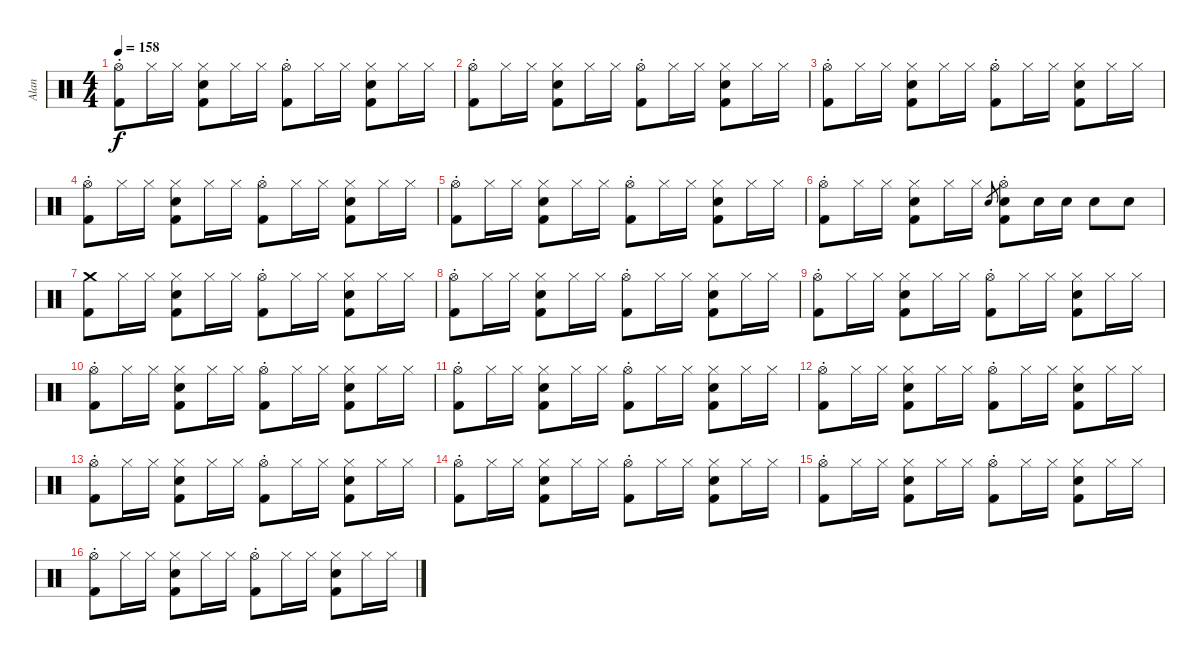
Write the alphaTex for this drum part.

\track ("Alan" "Alan") {instrument percussion}
\staff {score}
\articulation defaults
\ts (4 4)
\tempo 158
\clef neutral
\ks c
("Hi-Hat (open)"{st} "Kick (hit) 2").8{dy f} "Hi-Hat (closed)".16 "Hi-Hat (closed)".16 ("Hi-Hat (closed)" "Kick (hit) 2" "Snare (hit) 2").8 "Hi-Hat (closed)".16 "Hi-Hat (closed)".16 ("Hi-Hat (open)"{st} "Kick (hit) 2").8 "Hi-Hat (closed)".16 "Hi-Hat (closed)".16 ("Hi-Hat (closed)" "Kick (hit) 2" "Snare (hit) 2").8 "Hi-Hat (closed)".16 "Hi-Hat (closed)".16 |
("Hi-Hat (open)"{st} "Kick (hit) 2").8 "Hi-Hat (closed)".16 "Hi-Hat (closed)".16 ("Hi-Hat (closed)" "Kick (hit) 2" "Snare (hit) 2").8 "Hi-Hat (closed)".16 "Hi-Hat (closed)".16 ("Hi-Hat (open)"{st} "Kick (hit) 2").8 "Hi-Hat (closed)".16 "Hi-Hat (closed)".16 ("Hi-Hat (closed)" "Kick (hit) 2" "Snare (hit) 2").8 "Hi-Hat (closed)".16 "Hi-Hat (closed)".16 |
("Hi-Hat (open)"{st} "Kick (hit) 2").8 "Hi-Hat (closed)".16 "Hi-Hat (closed)".16 ("Hi-Hat (closed)" "Kick (hit) 2" "Snare (hit) 2").8 "Hi-Hat (closed)".16 "Hi-Hat (closed)".16 ("Hi-Hat (open)"{st} "Kick (hit) 2").8 "Hi-Hat (closed)".16 "Hi-Hat (closed)".16 ("Hi-Hat (closed)" "Kick (hit) 2" "Snare (hit) 2").8 "Hi-Hat (closed)".16 "Hi-Hat (closed)".16 |
("Hi-Hat (open)"{st} "Kick (hit) 2").8 "Hi-Hat (closed)".16 "Hi-Hat (closed)".16 ("Hi-Hat (closed)" "Kick (hit) 2" "Snare (hit) 2").8 "Hi-Hat (closed)".16 "Hi-Hat (closed)".16 ("Hi-Hat (open)"{st} "Kick (hit) 2").8 "Hi-Hat (closed)".16 "Hi-Hat (closed)".16 ("Hi-Hat (closed)" "Kick (hit) 2" "Snare (hit) 2").8 "Hi-Hat (closed)".16 "Hi-Hat (closed)".16 |
("Hi-Hat (open)"{st} "Kick (hit) 2").8 "Hi-Hat (closed)".16 "Hi-Hat (closed)".16 ("Hi-Hat (closed)" "Kick (hit) 2" "Snare (hit) 2").8 "Hi-Hat (closed)".16 "Hi-Hat (closed)".16 ("Hi-Hat (open)"{st} "Kick (hit) 2").8 "Hi-Hat (closed)".16 "Hi-Hat (closed)".16 ("Hi-Hat (closed)" "Kick (hit) 2" "Snare (hit) 2").8 "Hi-Hat (closed)".16 "Hi-Hat (closed)".16 |
("Hi-Hat (open)"{st} "Kick (hit) 2").8 "Hi-Hat (closed)".16 "Hi-Hat (closed)".16 ("Kick (hit) 2" "Snare (hit) 2" "Hi-Hat (closed)").8 "Hi-Hat (closed)".16 "Hi-Hat (closed)".16 "Snare (hit) 2".8{gr} ("Snare (hit) 2" "Kick (hit) 2" "Hi-Hat (open)"{st}).8 "Snare (hit) 2".16 "Snare (hit) 2".16 "Snare (hit) 2".8 "Snare (hit) 2".8 |
("Crash medium (hit)" "Kick (hit) 2").8 "Hi-Hat (closed)".16 "Hi-Hat (closed)".16 ("Hi-Hat (closed)" "Kick (hit) 2" "Snare (hit) 2").8 "Hi-Hat (closed)".16 "Hi-Hat (closed)".16 ("Hi-Hat (open)"{st} "Kick (hit) 2").8 "Hi-Hat (closed)".16 "Hi-Hat (closed)".16 ("Hi-Hat (closed)" "Kick (hit) 2" "Snare (hit) 2").8 "Hi-Hat (closed)".16 "Hi-Hat (closed)".16 |
("Hi-Hat (open)"{st} "Kick (hit) 2").8 "Hi-Hat (closed)".16 "Hi-Hat (closed)".16 ("Hi-Hat (closed)" "Kick (hit) 2" "Snare (hit) 2").8 "Hi-Hat (closed)".16 "Hi-Hat (closed)".16 ("Hi-Hat (open)"{st} "Kick (hit) 2").8 "Hi-Hat (closed)".16 "Hi-Hat (closed)".16 ("Hi-Hat (closed)" "Kick (hit) 2" "Snare (hit) 2").8 "Hi-Hat (closed)".16 "Hi-Hat (closed)".16 |
("Hi-Hat (open)"{st} "Kick (hit) 2").8 "Hi-Hat (closed)".16 "Hi-Hat (closed)".16 ("Hi-Hat (closed)" "Kick (hit) 2" "Snare (hit) 2").8 "Hi-Hat (closed)".16 "Hi-Hat (closed)".16 ("Hi-Hat (open)"{st} "Kick (hit) 2").8 "Hi-Hat (closed)".16 "Hi-Hat (closed)".16 ("Hi-Hat (closed)" "Kick (hit) 2" "Snare (hit) 2").8 "Hi-Hat (closed)".16 "Hi-Hat (closed)".16 |
("Hi-Hat (open)"{st} "Kick (hit) 2").8 "Hi-Hat (closed)".16 "Hi-Hat (closed)".16 ("Hi-Hat (closed)" "Kick (hit) 2" "Snare (hit) 2").8 "Hi-Hat (closed)".16 "Hi-Hat (closed)".16 ("Hi-Hat (open)"{st} "Kick (hit) 2").8 "Hi-Hat (closed)".16 "Hi-Hat (closed)".16 ("Hi-Hat (closed)" "Kick (hit) 2" "Snare (hit) 2").8 "Hi-Hat (closed)".16 "Hi-Hat (closed)".16 |
("Hi-Hat (open)"{st} "Kick (hit) 2").8 "Hi-Hat (closed)".16 "Hi-Hat (closed)".16 ("Hi-Hat (closed)" "Kick (hit) 2" "Snare (hit) 2").8 "Hi-Hat (closed)".16 "Hi-Hat (closed)".16 ("Hi-Hat (open)"{st} "Kick (hit) 2").8 "Hi-Hat (closed)".16 "Hi-Hat (closed)".16 ("Hi-Hat (closed)" "Kick (hit) 2" "Snare (hit) 2").8 "Hi-Hat (closed)".16 "Hi-Hat (closed)".16 |
("Hi-Hat (open)"{st} "Kick (hit) 2").8 "Hi-Hat (closed)".16 "Hi-Hat (closed)".16 ("Hi-Hat (closed)" "Kick (hit) 2" "Snare (hit) 2").8 "Hi-Hat (closed)".16 "Hi-Hat (closed)".16 ("Hi-Hat (open)"{st} "Kick (hit) 2").8 "Hi-Hat (closed)".16 "Hi-Hat (closed)".16 ("Hi-Hat (closed)" "Kick (hit) 2" "Snare (hit) 2").8 "Hi-Hat (closed)".16 "Hi-Hat (closed)".16 |
("Hi-Hat (open)"{st} "Kick (hit) 2").8 "Hi-Hat (closed)".16 "Hi-Hat (closed)".16 ("Hi-Hat (closed)" "Kick (hit) 2" "Snare (hit) 2").8 "Hi-Hat (closed)".16 "Hi-Hat (closed)".16 ("Hi-Hat (open)"{st} "Kick (hit) 2").8 "Hi-Hat (closed)".16 "Hi-Hat (closed)".16 ("Hi-Hat (closed)" "Kick (hit) 2" "Snare (hit) 2").8 "Hi-Hat (closed)".16 "Hi-Hat (closed)".16 |
("Hi-Hat (open)"{st} "Kick (hit) 2").8 "Hi-Hat (closed)".16 "Hi-Hat (closed)".16 ("Hi-Hat (closed)" "Kick (hit) 2" "Snare (hit) 2").8 "Hi-Hat (closed)".16 "Hi-Hat (closed)".16 ("Hi-Hat (open)"{st} "Kick (hit) 2").8 "Hi-Hat (closed)".16 "Hi-Hat (closed)".16 ("Hi-Hat (closed)" "Kick (hit) 2" "Snare (hit) 2").8 "Hi-Hat (closed)".16 "Hi-Hat (closed)".16 |
("Hi-Hat (open)"{st} "Kick (hit) 2").8 "Hi-Hat (closed)".16 "Hi-Hat (closed)".16 ("Hi-Hat (closed)" "Kick (hit) 2" "Snare (hit) 2").8 "Hi-Hat (closed)".16 "Hi-Hat (closed)".16 ("Hi-Hat (open)"{st} "Kick (hit) 2").8 "Hi-Hat (closed)".16 "Hi-Hat (closed)".16 ("Hi-Hat (closed)" "Kick (hit) 2" "Snare (hit) 2").8 "Hi-Hat (closed)".16 "Hi-Hat (closed)".16 |
("Hi-Hat (open)"{st} "Kick (hit) 2").8 "Hi-Hat (closed)".16 "Hi-Hat (closed)".16 ("Hi-Hat (closed)" "Kick (hit) 2" "Snare (hit) 2").8 "Hi-Hat (closed)".16 "Hi-Hat (closed)".16 ("Hi-Hat (open)"{st} "Kick (hit) 2").8 "Hi-Hat (closed)".16 "Hi-Hat (closed)".16 ("Hi-Hat (closed)" "Kick (hit) 2" "Snare (hit) 2").8 "Hi-Hat (closed)".16 "Hi-Hat (closed)".16
